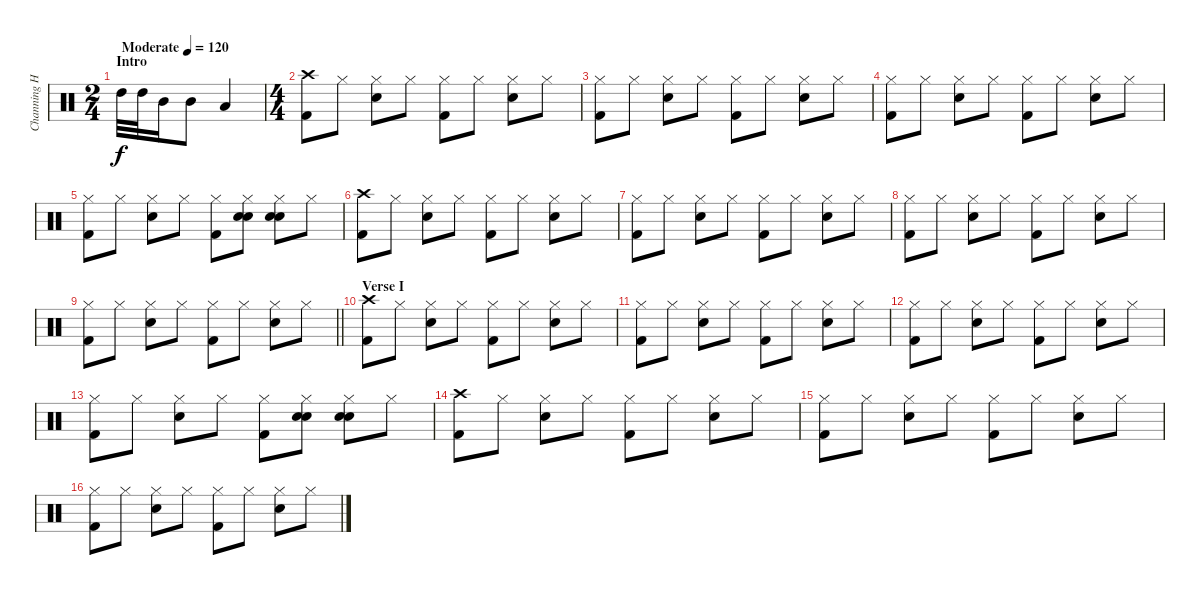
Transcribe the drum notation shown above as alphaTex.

\track ("Channing Holmes' drums" "Channing H") {instrument percussion}
\staff {score}
\articulation defaults
\ts (2 4)
\section ("" "Intro")
\tempo (120 "Moderate")
\clef neutral
\ks c "High Tom (hit)".32{dy f} "High Tom (hit)".32 "Mid Tom (hit)".16 "Mid Tom (hit)".8 "Low Tom (hit)".4
|
\ts (4 4)
("Crash high (hit)" "Kick (hit) 2").8 "Hi-Hat (closed)".8 ("Hi-Hat (closed)" "Snare (hit) 2").8 "Hi-Hat (closed)".8 ("Hi-Hat (closed)" "Kick (hit) 2").8 "Hi-Hat (closed)".8 ("Hi-Hat (closed)" "Snare (hit) 2").8 "Hi-Hat (closed)".8 |
("Hi-Hat (closed)" "Kick (hit) 2").8 "Hi-Hat (closed)".8 ("Hi-Hat (closed)" "Snare (hit) 2").8 "Hi-Hat (closed)".8 ("Hi-Hat (closed)" "Kick (hit) 2").8 "Hi-Hat (closed)".8 ("Hi-Hat (closed)" "Snare (hit) 2").8 "Hi-Hat (closed)".8 |
("Hi-Hat (closed)" "Kick (hit) 2").8 "Hi-Hat (closed)".8 ("Hi-Hat (closed)" "Snare (hit) 2").8 "Hi-Hat (closed)".8 ("Hi-Hat (closed)" "Kick (hit) 2").8 "Hi-Hat (closed)".8 ("Hi-Hat (closed)" "Snare (hit) 2").8 "Hi-Hat (closed)".8 |
("Hi-Hat (closed)" "Kick (hit) 2").8 "Hi-Hat (closed)".8 ("Hi-Hat (closed)" "Snare (hit) 2").8 "Hi-Hat (closed)".8 ("Hi-Hat (closed)" "Kick (hit) 2").8 ("Hand Clap (hit)" "Hi-Hat (closed)" "Snare (hit) 2").8 ("Hand Clap (hit)" "Hi-Hat (closed)" "Snare (hit) 2").8 "Hi-Hat (closed)".8 |
("Crash high (hit)" "Kick (hit) 2").8 "Hi-Hat (closed)".8 ("Hi-Hat (closed)" "Snare (hit) 2").8 "Hi-Hat (closed)".8 ("Hi-Hat (closed)" "Kick (hit) 2").8 "Hi-Hat (closed)".8 ("Hi-Hat (closed)" "Snare (hit) 2").8 "Hi-Hat (closed)".8 |
("Hi-Hat (closed)" "Kick (hit) 2").8 "Hi-Hat (closed)".8 ("Hi-Hat (closed)" "Snare (hit) 2").8 "Hi-Hat (closed)".8 ("Hi-Hat (closed)" "Kick (hit) 2").8 "Hi-Hat (closed)".8 ("Hi-Hat (closed)" "Snare (hit) 2").8 "Hi-Hat (closed)".8 |
("Hi-Hat (closed)" "Kick (hit) 2").8 "Hi-Hat (closed)".8 ("Hi-Hat (closed)" "Snare (hit) 2").8 "Hi-Hat (closed)".8 ("Hi-Hat (closed)" "Kick (hit) 2").8 "Hi-Hat (closed)".8 ("Hi-Hat (closed)" "Snare (hit) 2").8 "Hi-Hat (closed)".8 |
\barLineRight lightlight
("Hi-Hat (closed)" "Kick (hit) 2").8 "Hi-Hat (closed)".8 ("Hi-Hat (closed)" "Snare (hit) 2").8 "Hi-Hat (closed)".8 ("Hi-Hat (closed)" "Kick (hit) 2").8 "Hi-Hat (closed)".8 ("Hi-Hat (closed)" "Snare (hit) 2").8 "Hi-Hat (closed)".8 |
\section ("" "Verse I")
("Crash high (hit)" "Kick (hit) 2").8 "Hi-Hat (closed)".8 ("Hi-Hat (closed)" "Snare (hit) 2").8 "Hi-Hat (closed)".8 ("Hi-Hat (closed)" "Kick (hit) 2").8 "Hi-Hat (closed)".8 ("Hi-Hat (closed)" "Snare (hit) 2").8 "Hi-Hat (closed)".8 |
("Hi-Hat (closed)" "Kick (hit) 2").8 "Hi-Hat (closed)".8 ("Hi-Hat (closed)" "Snare (hit) 2").8 "Hi-Hat (closed)".8 ("Hi-Hat (closed)" "Kick (hit) 2").8 "Hi-Hat (closed)".8 ("Hi-Hat (closed)" "Snare (hit) 2").8 "Hi-Hat (closed)".8 |
("Hi-Hat (closed)" "Kick (hit) 2").8 "Hi-Hat (closed)".8 ("Hi-Hat (closed)" "Snare (hit) 2").8 "Hi-Hat (closed)".8 ("Hi-Hat (closed)" "Kick (hit) 2").8 "Hi-Hat (closed)".8 ("Hi-Hat (closed)" "Snare (hit) 2").8 "Hi-Hat (closed)".8 |
("Hi-Hat (closed)" "Kick (hit) 2").8 "Hi-Hat (closed)".8 ("Hi-Hat (closed)" "Snare (hit) 2").8 "Hi-Hat (closed)".8 ("Hi-Hat (closed)" "Kick (hit) 2").8 ("Hand Clap (hit)" "Hi-Hat (closed)" "Snare (hit) 2").8 ("Hand Clap (hit)" "Hi-Hat (closed)" "Snare (hit) 2").8 "Hi-Hat (closed)".8 |
("Crash high (hit)" "Kick (hit) 2").8 "Hi-Hat (closed)".8 ("Hi-Hat (closed)" "Snare (hit) 2").8 "Hi-Hat (closed)".8 ("Hi-Hat (closed)" "Kick (hit) 2").8 "Hi-Hat (closed)".8 ("Hi-Hat (closed)" "Snare (hit) 2").8 "Hi-Hat (closed)".8 |
("Hi-Hat (closed)" "Kick (hit) 2").8 "Hi-Hat (closed)".8 ("Hi-Hat (closed)" "Snare (hit) 2").8 "Hi-Hat (closed)".8 ("Hi-Hat (closed)" "Kick (hit) 2").8 "Hi-Hat (closed)".8 ("Hi-Hat (closed)" "Snare (hit) 2").8 "Hi-Hat (closed)".8 |
("Hi-Hat (closed)" "Kick (hit) 2").8 "Hi-Hat (closed)".8 ("Hi-Hat (closed)" "Snare (hit) 2").8 "Hi-Hat (closed)".8 ("Hi-Hat (closed)" "Kick (hit) 2").8 "Hi-Hat (closed)".8 ("Hi-Hat (closed)" "Snare (hit) 2").8 "Hi-Hat (closed)".8
